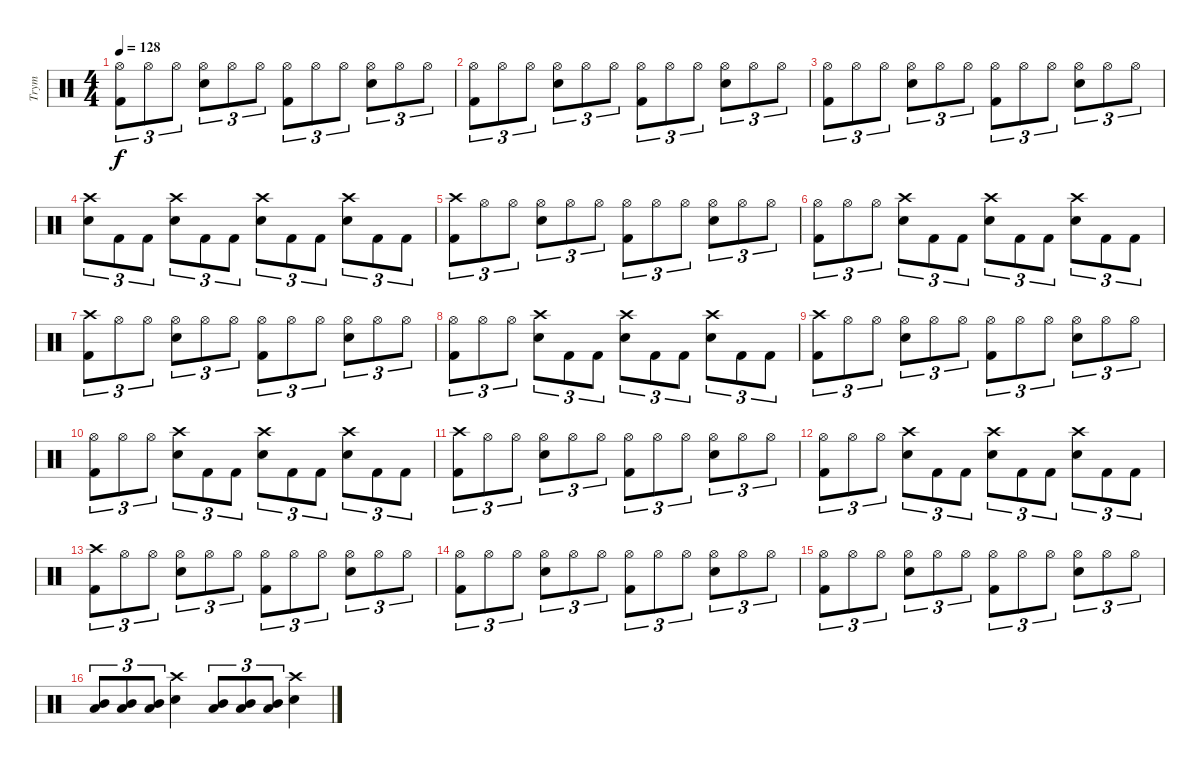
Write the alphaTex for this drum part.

\track ("Trym" "Trym") {instrument percussion}
\staff {score}
\articulation defaults
\ts (4 4)
\tempo 128
\clef neutral
\ks c
("Hi-Hat (open)" "Kick (hit) 2").8{tu (3 2) dy f} "Hi-Hat (open)".8{tu (3 2)} "Hi-Hat (open)".8{tu (3 2)} ("Hi-Hat (open)" "Electric Snare (hit)").8{tu (3 2)} "Hi-Hat (open)".8{tu (3 2)} "Hi-Hat (open)".8{tu (3 2)} ("Hi-Hat (open)" "Kick (hit) 2").8{tu (3 2)} "Hi-Hat (open)".8{tu (3 2)} "Hi-Hat (open)".8{tu (3 2)} ("Hi-Hat (open)" "Electric Snare (hit)").8{tu (3 2)} "Hi-Hat (open)".8{tu (3 2)} "Hi-Hat (open)".8{tu (3 2)} |
("Hi-Hat (open)" "Kick (hit) 2").8{tu (3 2)} "Hi-Hat (open)".8{tu (3 2)} "Hi-Hat (open)".8{tu (3 2)} ("Hi-Hat (open)" "Electric Snare (hit)").8{tu (3 2)} "Hi-Hat (open)".8{tu (3 2)} "Hi-Hat (open)".8{tu (3 2)} ("Hi-Hat (open)" "Kick (hit) 2").8{tu (3 2)} "Hi-Hat (open)".8{tu (3 2)} "Hi-Hat (open)".8{tu (3 2)} ("Hi-Hat (open)" "Electric Snare (hit)").8{tu (3 2)} "Hi-Hat (open)".8{tu (3 2)} "Hi-Hat (open)".8{tu (3 2)} |
("Hi-Hat (open)" "Kick (hit) 2").8{tu (3 2)} "Hi-Hat (open)".8{tu (3 2)} "Hi-Hat (open)".8{tu (3 2)} ("Hi-Hat (open)" "Electric Snare (hit)").8{tu (3 2)} "Hi-Hat (open)".8{tu (3 2)} "Hi-Hat (open)".8{tu (3 2)} ("Hi-Hat (open)" "Kick (hit) 2").8{tu (3 2)} "Hi-Hat (open)".8{tu (3 2)} "Hi-Hat (open)".8{tu (3 2)} ("Hi-Hat (open)" "Electric Snare (hit)").8{tu (3 2)} "Hi-Hat (open)".8{tu (3 2)} "Hi-Hat (open)".8{tu (3 2)} |
("Crash high (hit)" "Electric Snare (hit)").8{tu (3 2)} "Kick (hit) 2".8{tu (3 2)} "Kick (hit) 2".8{tu (3 2)} ("Crash high (hit)" "Electric Snare (hit)").8{tu (3 2)} "Kick (hit) 2".8{tu (3 2)} "Kick (hit) 2".8{tu (3 2)} ("Crash high (hit)" "Electric Snare (hit)").8{tu (3 2)} "Kick (hit) 2".8{tu (3 2)} "Kick (hit) 2".8{tu (3 2)} ("Crash high (hit)" "Electric Snare (hit)").8{tu (3 2)} "Kick (hit) 2".8{tu (3 2)} "Kick (hit) 2".8{tu (3 2)} |
("Crash high (hit)" "Kick (hit) 2").8{tu (3 2)} "Hi-Hat (open)".8{tu (3 2)} "Hi-Hat (open)".8{tu (3 2)} ("Hi-Hat (open)" "Electric Snare (hit)").8{tu (3 2)} "Hi-Hat (open)".8{tu (3 2)} "Hi-Hat (open)".8{tu (3 2)} ("Hi-Hat (open)" "Kick (hit) 2").8{tu (3 2)} "Hi-Hat (open)".8{tu (3 2)} "Hi-Hat (open)".8{tu (3 2)} ("Hi-Hat (open)" "Electric Snare (hit)").8{tu (3 2)} "Hi-Hat (open)".8{tu (3 2)} "Hi-Hat (open)".8{tu (3 2)} |
("Hi-Hat (open)" "Kick (hit) 2").8{tu (3 2)} "Hi-Hat (open)".8{tu (3 2)} "Hi-Hat (open)".8{tu (3 2)} ("Crash high (hit)" "Electric Snare (hit)").8{tu (3 2)} "Kick (hit) 2".8{tu (3 2)} "Kick (hit) 2".8{tu (3 2)} ("Crash high (hit)" "Electric Snare (hit)").8{tu (3 2)} "Kick (hit) 2".8{tu (3 2)} "Kick (hit) 2".8{tu (3 2)} ("Crash high (hit)" "Electric Snare (hit)").8{tu (3 2)} "Kick (hit) 2".8{tu (3 2)} "Kick (hit) 2".8{tu (3 2)} |
("Crash high (hit)" "Kick (hit) 2").8{tu (3 2)} "Hi-Hat (open)".8{tu (3 2)} "Hi-Hat (open)".8{tu (3 2)} ("Hi-Hat (open)" "Electric Snare (hit)").8{tu (3 2)} "Hi-Hat (open)".8{tu (3 2)} "Hi-Hat (open)".8{tu (3 2)} ("Hi-Hat (open)" "Kick (hit) 2").8{tu (3 2)} "Hi-Hat (open)".8{tu (3 2)} "Hi-Hat (open)".8{tu (3 2)} ("Hi-Hat (open)" "Electric Snare (hit)").8{tu (3 2)} "Hi-Hat (open)".8{tu (3 2)} "Hi-Hat (open)".8{tu (3 2)} |
("Hi-Hat (open)" "Kick (hit) 2").8{tu (3 2)} "Hi-Hat (open)".8{tu (3 2)} "Hi-Hat (open)".8{tu (3 2)} ("Crash high (hit)" "Electric Snare (hit)").8{tu (3 2)} "Kick (hit) 2".8{tu (3 2)} "Kick (hit) 2".8{tu (3 2)} ("Crash high (hit)" "Electric Snare (hit)").8{tu (3 2)} "Kick (hit) 2".8{tu (3 2)} "Kick (hit) 2".8{tu (3 2)} ("Crash high (hit)" "Electric Snare (hit)").8{tu (3 2)} "Kick (hit) 2".8{tu (3 2)} "Kick (hit) 2".8{tu (3 2)} |
("Crash high (hit)" "Kick (hit) 2").8{tu (3 2)} "Hi-Hat (open)".8{tu (3 2)} "Hi-Hat (open)".8{tu (3 2)} ("Hi-Hat (open)" "Electric Snare (hit)").8{tu (3 2)} "Hi-Hat (open)".8{tu (3 2)} "Hi-Hat (open)".8{tu (3 2)} ("Hi-Hat (open)" "Kick (hit) 2").8{tu (3 2)} "Hi-Hat (open)".8{tu (3 2)} "Hi-Hat (open)".8{tu (3 2)} ("Hi-Hat (open)" "Electric Snare (hit)").8{tu (3 2)} "Hi-Hat (open)".8{tu (3 2)} "Hi-Hat (open)".8{tu (3 2)} |
("Hi-Hat (open)" "Kick (hit) 2").8{tu (3 2)} "Hi-Hat (open)".8{tu (3 2)} "Hi-Hat (open)".8{tu (3 2)} ("Crash high (hit)" "Electric Snare (hit)").8{tu (3 2)} "Kick (hit) 2".8{tu (3 2)} "Kick (hit) 2".8{tu (3 2)} ("Crash high (hit)" "Electric Snare (hit)").8{tu (3 2)} "Kick (hit) 2".8{tu (3 2)} "Kick (hit) 2".8{tu (3 2)} ("Crash high (hit)" "Electric Snare (hit)").8{tu (3 2)} "Kick (hit) 2".8{tu (3 2)} "Kick (hit) 2".8{tu (3 2)} |
("Crash high (hit)" "Kick (hit) 2").8{tu (3 2)} "Hi-Hat (open)".8{tu (3 2)} "Hi-Hat (open)".8{tu (3 2)} ("Hi-Hat (open)" "Electric Snare (hit)").8{tu (3 2)} "Hi-Hat (open)".8{tu (3 2)} "Hi-Hat (open)".8{tu (3 2)} ("Hi-Hat (open)" "Kick (hit) 2").8{tu (3 2)} "Hi-Hat (open)".8{tu (3 2)} "Hi-Hat (open)".8{tu (3 2)} ("Hi-Hat (open)" "Electric Snare (hit)").8{tu (3 2)} "Hi-Hat (open)".8{tu (3 2)} "Hi-Hat (open)".8{tu (3 2)} |
("Hi-Hat (open)" "Kick (hit) 2").8{tu (3 2)} "Hi-Hat (open)".8{tu (3 2)} "Hi-Hat (open)".8{tu (3 2)} ("Crash high (hit)" "Electric Snare (hit)").8{tu (3 2)} "Kick (hit) 2".8{tu (3 2)} "Kick (hit) 2".8{tu (3 2)} ("Crash high (hit)" "Electric Snare (hit)").8{tu (3 2)} "Kick (hit) 2".8{tu (3 2)} "Kick (hit) 2".8{tu (3 2)} ("Crash high (hit)" "Electric Snare (hit)").8{tu (3 2)} "Kick (hit) 2".8{tu (3 2)} "Kick (hit) 2".8{tu (3 2)} |
("Crash high (hit)" "Kick (hit) 2").8{tu (3 2)} "Hi-Hat (open)".8{tu (3 2)} "Hi-Hat (open)".8{tu (3 2)} ("Hi-Hat (open)" "Electric Snare (hit)").8{tu (3 2)} "Hi-Hat (open)".8{tu (3 2)} "Hi-Hat (open)".8{tu (3 2)} ("Hi-Hat (open)" "Kick (hit) 2").8{tu (3 2)} "Hi-Hat (open)".8{tu (3 2)} "Hi-Hat (open)".8{tu (3 2)} ("Hi-Hat (open)" "Electric Snare (hit)").8{tu (3 2)} "Hi-Hat (open)".8{tu (3 2)} "Hi-Hat (open)".8{tu (3 2)} |
("Hi-Hat (open)" "Kick (hit) 2").8{tu (3 2)} "Hi-Hat (open)".8{tu (3 2)} "Hi-Hat (open)".8{tu (3 2)} ("Hi-Hat (open)" "Electric Snare (hit)").8{tu (3 2)} "Hi-Hat (open)".8{tu (3 2)} "Hi-Hat (open)".8{tu (3 2)} ("Hi-Hat (open)" "Kick (hit) 2").8{tu (3 2)} "Hi-Hat (open)".8{tu (3 2)} "Hi-Hat (open)".8{tu (3 2)} ("Hi-Hat (open)" "Electric Snare (hit)").8{tu (3 2)} "Hi-Hat (open)".8{tu (3 2)} "Hi-Hat (open)".8{tu (3 2)} |
("Hi-Hat (open)" "Kick (hit) 2").8{tu (3 2)} "Hi-Hat (open)".8{tu (3 2)} "Hi-Hat (open)".8{tu (3 2)} ("Hi-Hat (open)" "Electric Snare (hit)").8{tu (3 2)} "Hi-Hat (open)".8{tu (3 2)} "Hi-Hat (open)".8{tu (3 2)} ("Hi-Hat (open)" "Kick (hit) 2").8{tu (3 2)} "Hi-Hat (open)".8{tu (3 2)} "Hi-Hat (open)".8{tu (3 2)} ("Hi-Hat (open)" "Electric Snare (hit)").8{tu (3 2)} "Hi-Hat (open)".8{tu (3 2)} "Hi-Hat (open)".8{tu (3 2)} |
("Mid Tom (hit)" "Low Tom (hit)").8{tu (3 2)} ("Mid Tom (hit)" "Low Tom (hit)").8{tu (3 2)} ("Mid Tom (hit)" "Low Tom (hit)").8{tu (3 2)} ("Crash high (hit)" "Electric Snare (hit)").4 ("Mid Tom (hit)" "Low Tom (hit)").8{tu (3 2)} ("Mid Tom (hit)" "Low Tom (hit)").8{tu (3 2)} ("Mid Tom (hit)" "Low Tom (hit)").8{tu (3 2)} ("Crash high (hit)" "Electric Snare (hit)").4
